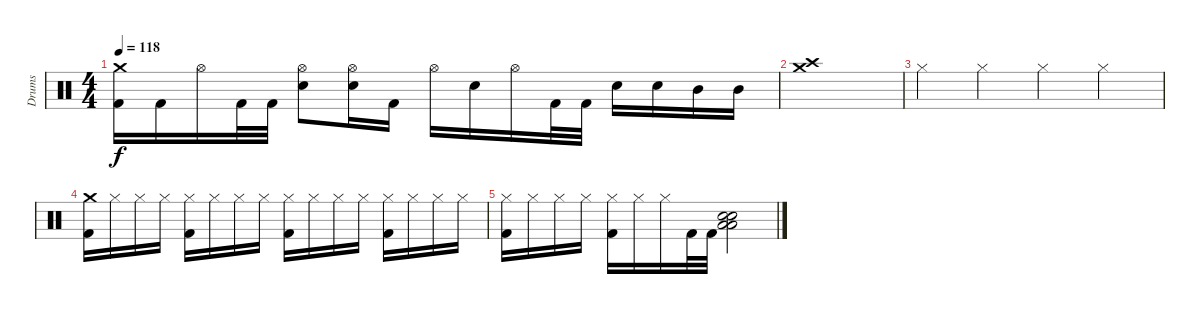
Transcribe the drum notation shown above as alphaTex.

\track ("Drums" "Drums") {instrument percussion}
\staff {score}
\articulation defaults
\ts (4 4)
\tempo 118
\clef neutral
\ks c
("Crash medium (hit)" "Kick (hit) 2").16{dy f} "Kick (hit) 2".16 "Hi-Hat (open)".16 "Kick (hit) 2".32 "Kick (hit) 2".32 ("Hi-Hat (open)" "Electric Snare (hit)").8 ("Hi-Hat (open)" "Electric Snare (hit)").16 "Kick (hit) 2".16 "Hi-Hat (open)".16 "Electric Snare (hit)".16 "Hi-Hat (open)".16 "Kick (hit) 2".32 "Kick (hit) 2".32 "Electric Snare (hit)".16 "Electric Snare (hit)".16 "Mid Tom (hit)".16 "Mid Tom (hit)".16 |
("Crash medium (hit)" "Crash high (hit)").1 |
"Hi-Hat (closed)".4 "Hi-Hat (closed)".4 "Hi-Hat (closed)".4 "Hi-Hat (closed)".4 |
("Crash medium (hit)" "Kick (hit) 2").16 "Hi-Hat (closed)".16 "Hi-Hat (closed)".16 "Hi-Hat (closed)".16 ("Hi-Hat (closed)" "Kick (hit) 2").16 "Hi-Hat (closed)".16 "Hi-Hat (closed)".16 "Hi-Hat (closed)".16 ("Hi-Hat (closed)" "Kick (hit) 2").16 "Hi-Hat (closed)".16 "Hi-Hat (closed)".16 "Hi-Hat (closed)".16 ("Hi-Hat (closed)" "Kick (hit) 2").16 "Hi-Hat (closed)".16 "Hi-Hat (closed)".16 "Hi-Hat (closed)".16 |
("Hi-Hat (closed)" "Kick (hit) 2").16 "Hi-Hat (closed)".16 "Hi-Hat (closed)".16 "Hi-Hat (closed)".16 ("Hi-Hat (closed)" "Kick (hit) 2").16 "Hi-Hat (closed)".16 "Hi-Hat (closed)".16 "Kick (hit) 2".32 "Kick (hit) 2".32 ("Electric Snare (hit)" "Electric Snare (hit)" "Low Floor Tom (hit)" "Low Floor Tom (hit)").2
